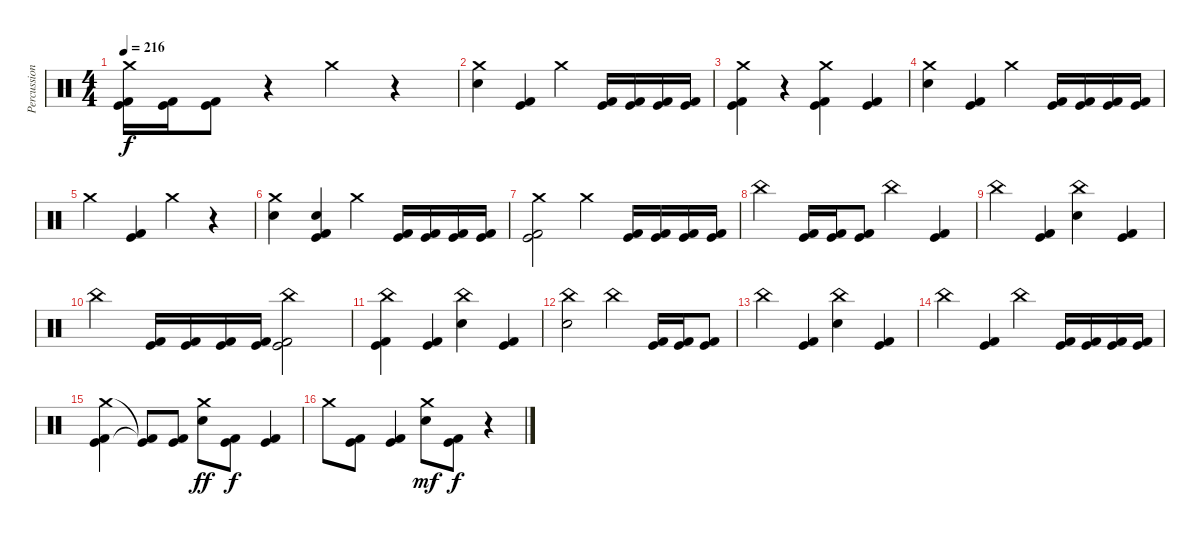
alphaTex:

\track ("Percussion" "Percussion") {instrument percussion}
\staff {score}
\articulation defaults
\ts (4 4)
\tempo 216
\clef neutral
\ks c
("Crash medium (hit)" "Kick (hit)" "Kick (hit) 2").16{dy f} ("Kick (hit)" "Kick (hit) 2").16 ("Kick (hit)" "Kick (hit) 2").8 r.4 "Crash medium (hit)".4 r.4 |
("Crash medium (hit)" "Electric Snare (hit)").4 ("Kick (hit)" "Kick (hit) 2").4 "Crash medium (hit)".4 ("Kick (hit)" "Kick (hit) 2").16 ("Kick (hit)" "Kick (hit) 2").16 ("Kick (hit)" "Kick (hit) 2").16 ("Kick (hit)" "Kick (hit) 2").16 |
("Crash medium (hit)" "Kick (hit)" "Kick (hit) 2").4 r.4 ("Crash medium (hit)" "Kick (hit)" "Kick (hit) 2").4 ("Kick (hit)" "Kick (hit) 2").4 |
("Crash medium (hit)" "Electric Snare (hit)").4 ("Kick (hit)" "Kick (hit) 2").4 "Crash medium (hit)".4 ("Kick (hit)" "Kick (hit) 2").16 ("Kick (hit)" "Kick (hit) 2").16 ("Kick (hit)" "Kick (hit) 2").16 ("Kick (hit)" "Kick (hit) 2").16 |
"Crash medium (hit)".4 ("Kick (hit)" "Kick (hit) 2").4 "Crash medium (hit)".4 r.4 |
("Crash medium (hit)" "Electric Snare (hit)").4 ("Electric Snare (hit)" "Kick (hit)" "Kick (hit) 2").4 "Crash medium (hit)".4 ("Kick (hit)" "Kick (hit) 2").16 ("Kick (hit)" "Kick (hit) 2").16 ("Kick (hit)" "Kick (hit) 2").16 ("Kick (hit)" "Kick (hit) 2").16 |
("Crash medium (hit)" "Kick (hit)" "Kick (hit) 2").2 "Crash medium (hit)".4 ("Kick (hit)" "Kick (hit) 2").16 ("Kick (hit)" "Kick (hit) 2").16 ("Kick (hit)" "Kick (hit) 2").16 ("Kick (hit)" "Kick (hit) 2").16 |
"China (hit)".4 ("Kick (hit)" "Kick (hit) 2").16 ("Kick (hit)" "Kick (hit) 2").16 ("Kick (hit)" "Kick (hit) 2").8 "China (hit)".4 ("Kick (hit)" "Kick (hit) 2").4 |
"China (hit)".4 ("Kick (hit)" "Kick (hit) 2").4 ("China (hit)" "Electric Snare (hit)").4 ("Kick (hit)" "Kick (hit) 2").4 |
"China (hit)".4 ("Kick (hit)" "Kick (hit) 2").16 ("Kick (hit)" "Kick (hit) 2").16 ("Kick (hit)" "Kick (hit) 2").16 ("Kick (hit)" "Kick (hit) 2").16 ("China (hit)" "Kick (hit)" "Kick (hit) 2").2 |
("China (hit)" "Kick (hit)" "Kick (hit) 2").4 ("Kick (hit)" "Kick (hit) 2").4 ("China (hit)" "Electric Snare (hit)").4 ("Kick (hit)" "Kick (hit) 2").4 |
("China (hit)" "Electric Snare (hit)").2 "China (hit)".4 ("Kick (hit)" "Kick (hit) 2").16 ("Kick (hit)" "Kick (hit) 2").16 ("Kick (hit)" "Kick (hit) 2").8 |
"China (hit)".4 ("Kick (hit)" "Kick (hit) 2").4 ("China (hit)" "Electric Snare (hit)").4 ("Kick (hit)" "Kick (hit) 2").4 |
"China (hit)".4 ("Kick (hit)" "Kick (hit) 2").4 "China (hit)".4 ("Kick (hit)" "Kick (hit) 2").16 ("Kick (hit)" "Kick (hit) 2").16 ("Kick (hit)" "Kick (hit) 2").16 ("Kick (hit)" "Kick (hit) 2").16 |
("Crash medium (hit)" "Kick (hit)" "Kick (hit) 2").4 ("Kick (hit)"{t} "Kick (hit) 2"{t}).8 ("Kick (hit)" "Kick (hit) 2").8 ("Crash medium (hit)" "Electric Snare (hit)").8{dy ff} ("Kick (hit)" "Kick (hit) 2").8{dy f} ("Kick (hit)" "Kick (hit) 2").4 |
"Crash medium (hit)".8 ("Kick (hit)" "Kick (hit) 2").8 ("Kick (hit)" "Kick (hit) 2").4 ("Crash medium (hit)" "Electric Snare (hit)").8{dy mf} ("Kick (hit)" "Kick (hit) 2").8{dy f} r.4
